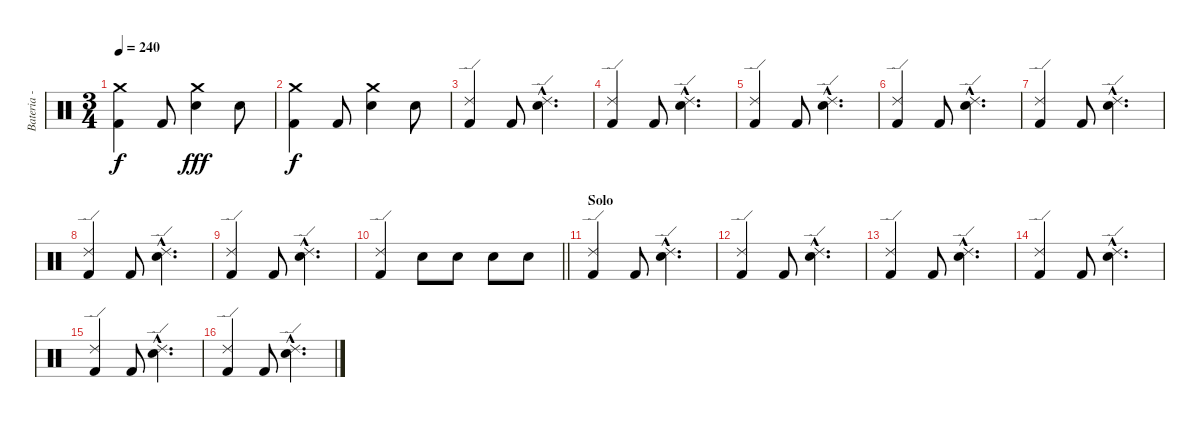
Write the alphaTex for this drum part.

\track ("Bateria - Larzon" "Bateria - ") {instrument percussion}
\staff {score}
\articulation defaults
\ts (3 4)
\tempo 240
\clef neutral
\ks c
("Kick (hit) 2" "Crash medium (hit)").4{dy f} "Kick (hit) 2".8 ("Snare (hit) 2" "Crash medium (hit)").4{dy fff} "Snare (hit) 2".8 |
("Kick (hit) 2" "Crash medium (hit)").4{dy f} "Kick (hit) 2".8 ("Snare (hit) 2" "Crash medium (hit)").4 "Snare (hit) 2".8 |
("Kick (hit) 2" "Ride (edge) 2").4 "Kick (hit) 2".8 ("Snare (hit) 2"{hac} "Ride (edge) 2"{hac}).4{d} |
("Kick (hit) 2" "Ride (edge) 2").4 "Kick (hit) 2".8 ("Snare (hit) 2"{hac} "Ride (edge) 2"{hac}).4{d} |
("Kick (hit) 2" "Ride (edge) 2").4 "Kick (hit) 2".8 ("Snare (hit) 2"{hac} "Ride (edge) 2"{hac}).4{d} |
("Kick (hit) 2" "Ride (edge) 2").4 "Kick (hit) 2".8 ("Snare (hit) 2"{hac} "Ride (edge) 2"{hac}).4{d} |
("Kick (hit) 2" "Ride (edge) 2").4 "Kick (hit) 2".8 ("Snare (hit) 2"{hac} "Ride (edge) 2"{hac}).4{d} |
("Kick (hit) 2" "Ride (edge) 2").4 "Kick (hit) 2".8 ("Snare (hit) 2"{hac} "Ride (edge) 2"{hac}).4{d} |
("Kick (hit) 2" "Ride (edge) 2").4 "Kick (hit) 2".8 ("Snare (hit) 2"{hac} "Ride (edge) 2"{hac}).4{d} |
\barLineRight lightlight
("Kick (hit) 2" "Ride (edge) 2").4 "Snare (hit) 2".8 "Snare (hit) 2".8 "Snare (hit) 2".8 "Snare (hit) 2".8 |
\section ("" "Solo")
("Kick (hit) 2" "Ride (edge) 2").4 "Kick (hit) 2".8 ("Snare (hit) 2"{hac} "Ride (edge) 2"{hac}).4{d} |
("Kick (hit) 2" "Ride (edge) 2").4 "Kick (hit) 2".8 ("Snare (hit) 2"{hac} "Ride (edge) 2"{hac}).4{d} |
("Kick (hit) 2" "Ride (edge) 2").4 "Kick (hit) 2".8 ("Snare (hit) 2"{hac} "Ride (edge) 2"{hac}).4{d} |
("Kick (hit) 2" "Ride (edge) 2").4 "Kick (hit) 2".8 ("Snare (hit) 2"{hac} "Ride (edge) 2"{hac}).4{d} |
("Kick (hit) 2" "Ride (edge) 2").4 "Kick (hit) 2".8 ("Snare (hit) 2"{hac} "Ride (edge) 2"{hac}).4{d} |
("Kick (hit) 2" "Ride (edge) 2").4 "Kick (hit) 2".8 ("Snare (hit) 2"{hac} "Ride (edge) 2"{hac}).4{d}
